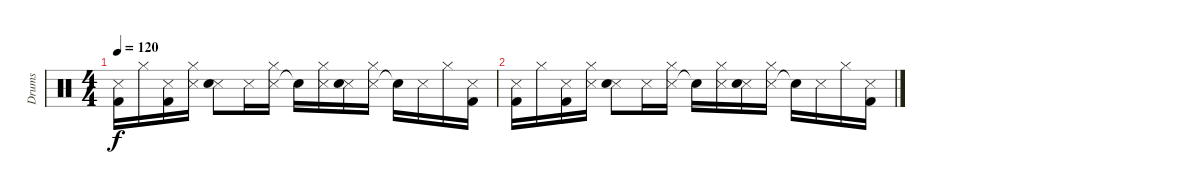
\track ("Drums" "Drums") {instrument percussion}
\staff {score}
\articulation defaults
\ts (4 4)
\tempo 120
\clef neutral
\ks c
("Snare (side stick) 3" "Kick (hit) 2").16{dy f} "Hi-Hat (closed)".16 ("Snare (side stick) 3" "Kick (hit) 2").16 ("Snare (side stick) 3" "Hi-Hat (closed)").16 ("Snare (side stick) 3" "Snare (hit) 2").8 "Snare (side stick) 3".16 ("Snare (side stick) 3" "Hi-Hat (closed)").16 "Snare (hit)"{t}.16 ("Snare (side stick) 3" "Hi-Hat (closed)").16 ("Snare (side stick) 3" "Snare (hit) 2").16 ("Snare (side stick) 3" "Hi-Hat (closed)").16 "Snare (hit)"{t}.16 "Snare (side stick) 3".16 "Hi-Hat (closed)".16 ("Snare (side stick) 3" "Kick (hit) 2").16 |
("Snare (side stick) 3" "Kick (hit) 2").16 "Hi-Hat (closed)".16 ("Snare (side stick) 3" "Kick (hit) 2").16{volume 0} ("Snare (side stick) 3" "Hi-Hat (closed)").16 ("Snare (side stick) 3" "Snare (hit) 2").8 "Snare (side stick) 3".16 ("Snare (side stick) 3" "Hi-Hat (closed)").16 "Snare (hit)"{t}.16 ("Snare (side stick) 3" "Hi-Hat (closed)").16 ("Snare (side stick) 3" "Snare (hit) 2").16 ("Snare (side stick) 3" "Hi-Hat (closed)").16 "Snare (hit)"{t}.16 "Snare (side stick) 3".16 "Hi-Hat (closed)".16 ("Snare (side stick) 3" "Kick (hit) 2").16
